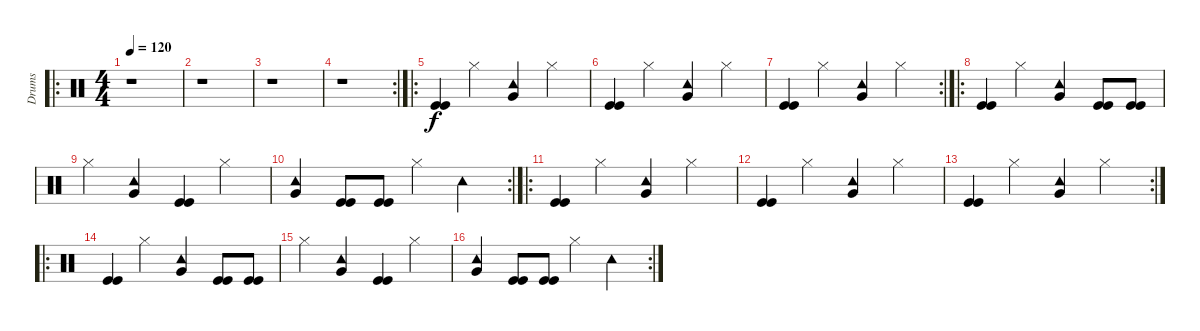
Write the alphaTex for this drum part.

\track ("Drums" "Drums") {instrument percussion}
\staff {score}
\articulation defaults
\ro
\ts (4 4)
\tempo 120
\clef neutral
\ks c
r.1{dy f} |
r.1 |
r.1 |
\rc 2
r.1 |
\ro
("Kick (hit)" "Kick (hit)").4 "Hi-Hat (closed)".4 ("Tambourine (hit)" "Very Low Tom (hit)").4 "Hi-Hat (closed)".4 |
("Kick (hit)" "Kick (hit)").4 "Hi-Hat (closed)".4 ("Tambourine (hit)" "Very Low Tom (hit)").4 "Hi-Hat (closed)".4 |
\rc 2
("Kick (hit)" "Kick (hit)").4 "Hi-Hat (closed)".4 ("Tambourine (hit)" "Very Low Tom (hit)").4 "Hi-Hat (closed)".4 |
\ro
("Kick (hit)" "Kick (hit)").4 "Hi-Hat (closed)".4 ("Tambourine (hit)" "Very Low Tom (hit)").4 ("Kick (hit)" "Kick (hit)").8 ("Kick (hit)" "Kick (hit)").8 |
"Hi-Hat (closed)".4 ("Tambourine (hit)" "Very Low Tom (hit)").4 ("Kick (hit)" "Kick (hit)").4 "Hi-Hat (closed)".4 |
\rc 2
("Tambourine (hit)" "Very Low Tom (hit)").4 ("Kick (hit)" "Kick (hit)").8 ("Kick (hit)" "Kick (hit)").8 "Hi-Hat (closed)".4 "Tambourine (hit)".4 |
\ro
("Kick (hit)" "Kick (hit)").4 "Hi-Hat (closed)".4 ("Tambourine (hit)" "Very Low Tom (hit)").4 "Hi-Hat (closed)".4 |
("Kick (hit)" "Kick (hit)").4 "Hi-Hat (closed)".4 ("Tambourine (hit)" "Very Low Tom (hit)").4 "Hi-Hat (closed)".4 |
\rc 2
("Kick (hit)" "Kick (hit)").4 "Hi-Hat (closed)".4 ("Tambourine (hit)" "Very Low Tom (hit)").4 "Hi-Hat (closed)".4 |
\ro
("Kick (hit)" "Kick (hit)").4 "Hi-Hat (closed)".4 ("Tambourine (hit)" "Very Low Tom (hit)").4 ("Kick (hit)" "Kick (hit)").8 ("Kick (hit)" "Kick (hit)").8 |
"Hi-Hat (closed)".4 ("Tambourine (hit)" "Very Low Tom (hit)").4 ("Kick (hit)" "Kick (hit)").4 "Hi-Hat (closed)".4 |
\rc 2
("Tambourine (hit)" "Very Low Tom (hit)").4 ("Kick (hit)" "Kick (hit)").8 ("Kick (hit)" "Kick (hit)").8 "Hi-Hat (closed)".4 "Tambourine (hit)".4
